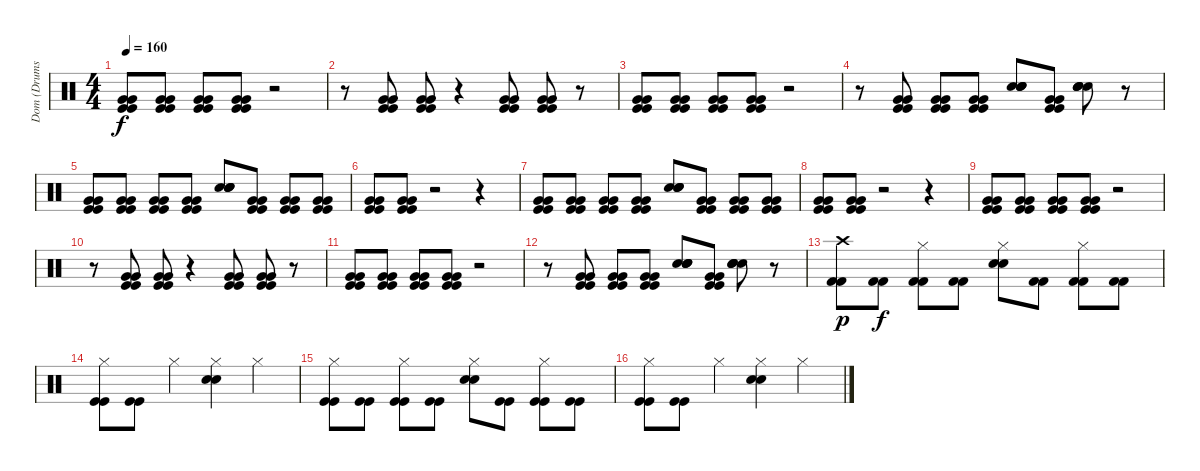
\track ("Dom (Drums)" "Dom (Drums") {instrument percussion}
\staff {score}
\articulation defaults
\ts (4 4)
\tempo 160
\clef neutral
\ks c
("Very Low Tom (hit)" "Very Low Tom (hit)" "Kick (hit)" "Kick (hit)").8{dy f} ("Very Low Tom (hit)" "Very Low Tom (hit)" "Kick (hit)" "Kick (hit)").8 ("Very Low Tom (hit)" "Very Low Tom (hit)" "Kick (hit)" "Kick (hit)").8 ("Very Low Tom (hit)" "Very Low Tom (hit)" "Kick (hit)" "Kick (hit)").8 r.2 |
r.8 ("Very Low Tom (hit)" "Very Low Tom (hit)" "Kick (hit)" "Kick (hit)").8 ("Very Low Tom (hit)" "Very Low Tom (hit)" "Kick (hit)" "Kick (hit)").8 r.4 ("Very Low Tom (hit)" "Very Low Tom (hit)" "Kick (hit)" "Kick (hit)").8 ("Very Low Tom (hit)" "Very Low Tom (hit)" "Kick (hit)" "Kick (hit)").8 r.8 |
("Very Low Tom (hit)" "Very Low Tom (hit)" "Kick (hit)" "Kick (hit)").8 ("Very Low Tom (hit)" "Very Low Tom (hit)" "Kick (hit)" "Kick (hit)").8 ("Very Low Tom (hit)" "Very Low Tom (hit)" "Kick (hit)" "Kick (hit)").8 ("Very Low Tom (hit)" "Very Low Tom (hit)" "Kick (hit)" "Kick (hit)").8 r.2 |
r.8 ("Very Low Tom (hit)" "Very Low Tom (hit)" "Kick (hit)" "Kick (hit)").8 ("Very Low Tom (hit)" "Very Low Tom (hit)" "Kick (hit)" "Kick (hit)").8 ("Very Low Tom (hit)" "Very Low Tom (hit)" "Kick (hit)" "Kick (hit)").8 ("Snare (hit) 2" "Snare (hit) 2" "Snare (hit) 2" "Snare (hit) 2").8 ("Very Low Tom (hit)" "Very Low Tom (hit)" "Kick (hit)" "Kick (hit)").8 ("Snare (hit) 2" "Snare (hit) 2" "Snare (hit) 2" "Snare (hit) 2").8 r.8 |
("Very Low Tom (hit)" "Very Low Tom (hit)" "Kick (hit)" "Kick (hit)").8{volume 10} ("Very Low Tom (hit)" "Very Low Tom (hit)" "Kick (hit)" "Kick (hit)").8 ("Very Low Tom (hit)" "Very Low Tom (hit)" "Kick (hit)" "Kick (hit)").8 ("Very Low Tom (hit)" "Very Low Tom (hit)" "Kick (hit)" "Kick (hit)").8 ("Snare (hit) 2" "Snare (hit) 2" "Snare (hit) 2" "Snare (hit) 2").8 ("Very Low Tom (hit)" "Very Low Tom (hit)" "Kick (hit)" "Kick (hit)").8 ("Very Low Tom (hit)" "Very Low Tom (hit)" "Kick (hit)" "Kick (hit)").8 ("Very Low Tom (hit)" "Very Low Tom (hit)" "Kick (hit)" "Kick (hit)").8 |
("Very Low Tom (hit)" "Very Low Tom (hit)" "Kick (hit)" "Kick (hit)").8 ("Very Low Tom (hit)" "Very Low Tom (hit)" "Kick (hit)" "Kick (hit)").8 r.2 r.4 |
("Very Low Tom (hit)" "Very Low Tom (hit)" "Kick (hit)" "Kick (hit)").8 ("Very Low Tom (hit)" "Very Low Tom (hit)" "Kick (hit)" "Kick (hit)").8 ("Very Low Tom (hit)" "Very Low Tom (hit)" "Kick (hit)" "Kick (hit)").8 ("Very Low Tom (hit)" "Very Low Tom (hit)" "Kick (hit)" "Kick (hit)").8 ("Snare (hit) 2" "Snare (hit) 2" "Snare (hit) 2" "Snare (hit) 2").8 ("Very Low Tom (hit)" "Very Low Tom (hit)" "Kick (hit)" "Kick (hit)").8 ("Very Low Tom (hit)" "Very Low Tom (hit)" "Kick (hit)" "Kick (hit)").8 ("Very Low Tom (hit)" "Very Low Tom (hit)" "Kick (hit)" "Kick (hit)").8 |
("Very Low Tom (hit)" "Very Low Tom (hit)" "Kick (hit)" "Kick (hit)").8 ("Very Low Tom (hit)" "Very Low Tom (hit)" "Kick (hit)" "Kick (hit)").8 r.2 r.4 |
("Very Low Tom (hit)" "Very Low Tom (hit)" "Kick (hit)" "Kick (hit)").8 ("Very Low Tom (hit)" "Very Low Tom (hit)" "Kick (hit)" "Kick (hit)").8 ("Very Low Tom (hit)" "Very Low Tom (hit)" "Kick (hit)" "Kick (hit)").8 ("Very Low Tom (hit)" "Very Low Tom (hit)" "Kick (hit)" "Kick (hit)").8 r.2 |
r.8 ("Very Low Tom (hit)" "Very Low Tom (hit)" "Kick (hit)" "Kick (hit)").8 ("Very Low Tom (hit)" "Very Low Tom (hit)" "Kick (hit)" "Kick (hit)").8 r.4 ("Very Low Tom (hit)" "Very Low Tom (hit)" "Kick (hit)" "Kick (hit)").8 ("Very Low Tom (hit)" "Very Low Tom (hit)" "Kick (hit)" "Kick (hit)").8 r.8 |
("Very Low Tom (hit)" "Very Low Tom (hit)" "Kick (hit)" "Kick (hit)").8 ("Very Low Tom (hit)" "Very Low Tom (hit)" "Kick (hit)" "Kick (hit)").8 ("Very Low Tom (hit)" "Very Low Tom (hit)" "Kick (hit)" "Kick (hit)").8 ("Very Low Tom (hit)" "Very Low Tom (hit)" "Kick (hit)" "Kick (hit)").8 r.2 |
r.8 ("Very Low Tom (hit)" "Very Low Tom (hit)" "Kick (hit)" "Kick (hit)").8 ("Very Low Tom (hit)" "Very Low Tom (hit)" "Kick (hit)" "Kick (hit)").8 ("Very Low Tom (hit)" "Very Low Tom (hit)" "Kick (hit)" "Kick (hit)").8 ("Snare (hit) 2" "Snare (hit) 2" "Snare (hit) 2" "Snare (hit) 2").8 ("Very Low Tom (hit)" "Very Low Tom (hit)" "Kick (hit)" "Kick (hit)").8 ("Snare (hit) 2" "Snare (hit) 2" "Snare (hit) 2" "Snare (hit) 2").8 r.8 |
("Crash high (hit)" "Kick (hit) 2" "Kick (hit) 2").8{dy p} ("Kick (hit) 2" "Kick (hit) 2").8{dy f} ("Hi-Hat (closed)" "Kick (hit) 2" "Kick (hit) 2").8 ("Kick (hit) 2" "Kick (hit) 2").8 ("Hi-Hat (closed)" "Snare (hit) 2" "Snare (hit) 2").8 ("Kick (hit) 2" "Kick (hit) 2").8 ("Hi-Hat (closed)" "Kick (hit) 2" "Kick (hit) 2").8 ("Kick (hit) 2" "Kick (hit) 2").8 |
("Hi-Hat (closed)" "Kick (hit)" "Kick (hit)").8 ("Kick (hit)" "Kick (hit)").8 "Hi-Hat (closed)".4 ("Hi-Hat (closed)" "Snare (hit) 2" "Snare (hit) 2").4 "Hi-Hat (closed)".4 |
("Hi-Hat (closed)" "Kick (hit)" "Kick (hit)").8 ("Kick (hit)" "Kick (hit)").8 ("Hi-Hat (closed)" "Kick (hit)" "Kick (hit)").8 ("Kick (hit)" "Kick (hit)").8 ("Hi-Hat (closed)" "Snare (hit) 2" "Snare (hit) 2").8 ("Kick (hit)" "Kick (hit)").8 ("Hi-Hat (closed)" "Kick (hit)" "Kick (hit)").8 ("Kick (hit)" "Kick (hit)").8 |
("Hi-Hat (closed)" "Kick (hit)" "Kick (hit)").8 ("Kick (hit)" "Kick (hit)").8 "Hi-Hat (closed)".4 ("Hi-Hat (closed)" "Snare (hit) 2" "Snare (hit) 2").4 "Hi-Hat (closed)".4
